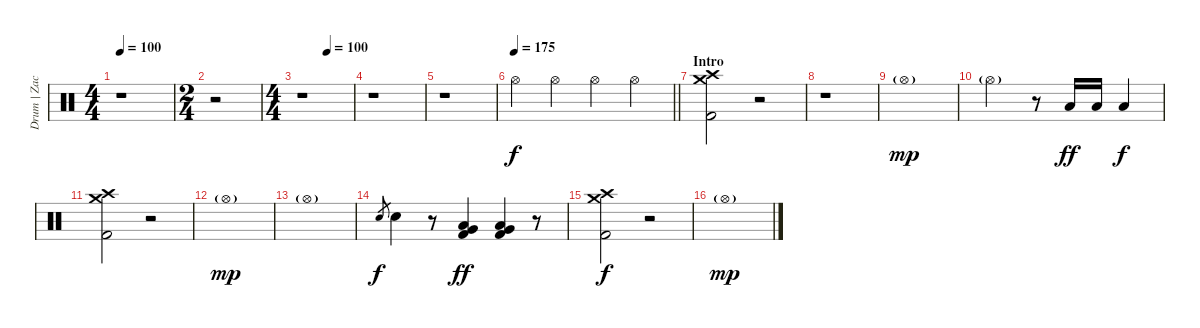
\track ("Drum | Zac" "Drum | Zac") {instrument percussion}
\staff {score}
\articulation defaults
\ts (4 4)
\tempo 100
\clef neutral
\ks c
r.1{dy f} |
\ts (2 4)
r.2 |
\ts (4 4)
\tempo (100 0.5)
r.1 |
r.1 |
r.1 |
\tempo 175
\barLineRight lightlight "Hi-Hat (open)".4 "Hi-Hat (open)".4 "Hi-Hat (open)".4 "Hi-Hat (open)".4
|
\section ("" "Intro")
("Crash medium (hit)" "Crash high (hit)" "Kick (hit) 2").2 r.2 |
r.1 |
"Hi-Hat (open)"{g}.1{dy mp} |
"Hi-Hat (open)"{g}.2 r.8 "Low Floor Tom (hit)".16{dy ff} "Low Floor Tom (hit)".16 "Low Floor Tom (hit)".4{dy f} |
("Crash medium (hit)" "Crash high (hit)" "Kick (hit) 2").2 r.2 |
"Hi-Hat (open)"{g}.1{dy mp} |
"Hi-Hat (open)"{g}.1 |
"Snare (hit) 2".8{gr dy f} "Snare (hit) 2".4 r.8 ("Very Low Tom (hit)" "Low Tom (hit)" "Kick (hit) 2").4{dy ff} ("Very Low Tom (hit)" "Low Tom (hit)" "Kick (hit) 2").4 r.8 |
("Crash medium (hit)" "Crash high (hit)" "Kick (hit) 2").2{dy f} r.2 |
"Hi-Hat (open)"{g}.1{dy mp}
